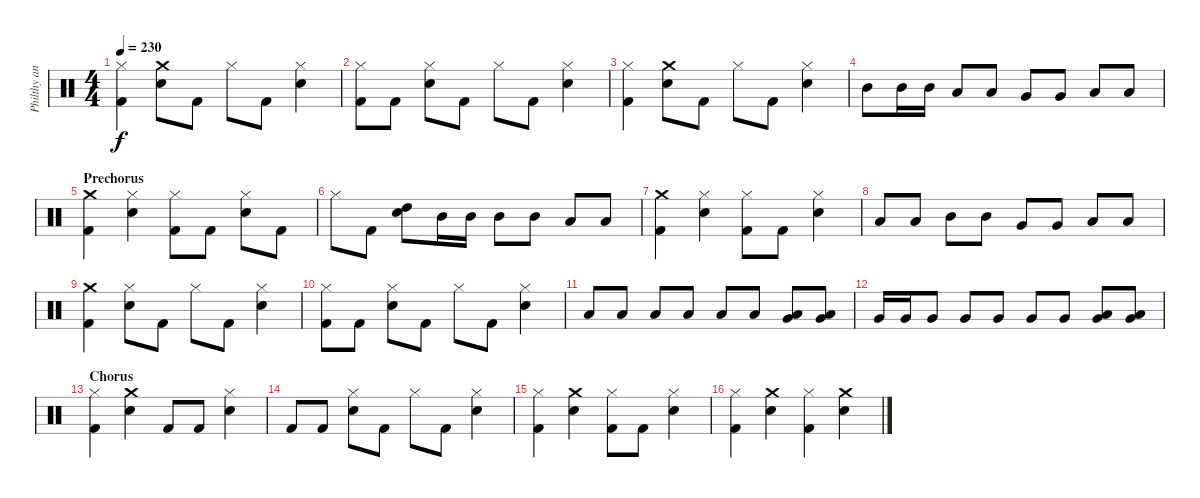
\track ("Philthy animal Taylor" "Philthy an") {instrument percussion}
\staff {score}
\articulation defaults
\ts (4 4)
\tempo 230
\clef neutral
\ks c
("Hi-Hat (closed)" "Kick (hit) 2").4{dy f} ("Crash medium (hit)" "Snare (hit) 2").8 "Kick (hit) 2".8 "Hi-Hat (closed)".8 "Kick (hit) 2".8 ("Hi-Hat (closed)" "Snare (hit) 2").4 |
("Hi-Hat (closed)" "Kick (hit) 2").8 "Kick (hit) 2".8 ("Hi-Hat (closed)" "Snare (hit) 2").8 "Kick (hit) 2".8 "Hi-Hat (closed)".8 "Kick (hit) 2".8 ("Hi-Hat (closed)" "Snare (hit) 2").4 |
("Hi-Hat (closed)" "Kick (hit) 2").4 ("Crash medium (hit)" "Snare (hit) 2").8 "Kick (hit) 2".8 "Hi-Hat (closed)".8 "Kick (hit) 2".8 ("Hi-Hat (closed)" "Snare (hit) 2").4 |
"Mid Tom (hit)".8 "Mid Tom (hit)".16 "Mid Tom (hit)".16 "Low Tom (hit)".8 "Low Tom (hit)".8 "Very Low Tom (hit)".8 "Very Low Tom (hit)".8 "Low Floor Tom (hit)".8 "Low Floor Tom (hit)".8 |
\section ("" "Prechorus")
("Crash medium (hit)" "Kick (hit) 2").4 ("Hi-Hat (closed)" "Snare (hit) 2").4 ("Hi-Hat (closed)" "Kick (hit) 2").8 "Kick (hit) 2".8 ("Hi-Hat (closed)" "Snare (hit) 2").8 "Kick (hit) 2".8 |
"Hi-Hat (closed)".8 "Kick (hit) 2".8 ("High Tom (hit)" "Snare (hit) 2").8 "Mid Tom (hit)".16 "Mid Tom (hit)".16 "Mid Tom (hit)".8 "Mid Tom (hit)".8 "Low Tom (hit)".8 "Low Tom (hit)".8 |
("Crash medium (hit)" "Kick (hit) 2").4 ("Hi-Hat (closed)" "Snare (hit) 2").4 ("Hi-Hat (closed)" "Kick (hit) 2").8 "Kick (hit) 2".8 ("Hi-Hat (closed)" "Snare (hit) 2").4 |
"Low Tom (hit)".8 "Low Tom (hit)".8 "Mid Tom (hit)".8 "Mid Tom (hit)".8 "Very Low Tom (hit)".8 "Very Low Tom (hit)".8 "Low Floor Tom (hit)".8 "Low Floor Tom (hit)".8 |
("Crash medium (hit)" "Kick (hit) 2").4 ("Hi-Hat (closed)" "Snare (hit) 2").8 "Kick (hit) 2".8 "Hi-Hat (closed)".8 "Kick (hit) 2".8 ("Hi-Hat (closed)" "Snare (hit) 2").4 |
("Hi-Hat (closed)" "Kick (hit) 2").8 "Kick (hit) 2".8 ("Hi-Hat (closed)" "Snare (hit) 2").8 "Kick (hit) 2".8 "Hi-Hat (closed)".8 "Kick (hit) 2".8 ("Hi-Hat (closed)" "Snare (hit) 2").4 |
"Low Tom (hit)".8 "Low Tom (hit)".8 "Low Tom (hit)".8 "Low Tom (hit)".8 "Low Tom (hit)".8 "Low Tom (hit)".8 ("Low Tom (hit)" "Very Low Tom (hit)").8 ("Low Tom (hit)" "Very Low Tom (hit)").8 |
"Very Low Tom (hit)".16 "Very Low Tom (hit)".16 "Very Low Tom (hit)".8 "Very Low Tom (hit)".8 "Very Low Tom (hit)".8 "Very Low Tom (hit)".8 "Very Low Tom (hit)".8 ("Very Low Tom (hit)" "Low Floor Tom (hit)").8 ("Very Low Tom (hit)" "Low Floor Tom (hit)").8 |
\section ("" "Chorus")
("Hi-Hat (closed)" "Kick (hit) 2").4 ("Crash medium (hit)" "Snare (hit) 2").4 "Kick (hit) 2".8 "Kick (hit) 2".8 ("Hi-Hat (closed)" "Snare (hit) 2").4 |
"Kick (hit) 2".8 "Kick (hit) 2".8 ("Hi-Hat (closed)" "Snare (hit) 2").8 "Kick (hit) 2".8 "Hi-Hat (closed)".8 "Kick (hit) 2".8 ("Hi-Hat (closed)" "Snare (hit) 2").4 |
("Hi-Hat (closed)" "Kick (hit) 2").4 ("Crash medium (hit)" "Snare (hit) 2").4 ("Hi-Hat (closed)" "Kick (hit) 2").8 "Kick (hit) 2".8 ("Hi-Hat (closed)" "Snare (hit) 2").4 |
("Hi-Hat (closed)" "Kick (hit) 2").4 ("Crash medium (hit)" "Snare (hit) 2").4 ("Hi-Hat (closed)" "Kick (hit) 2").4 ("Crash medium (hit)" "Snare (hit) 2").4
